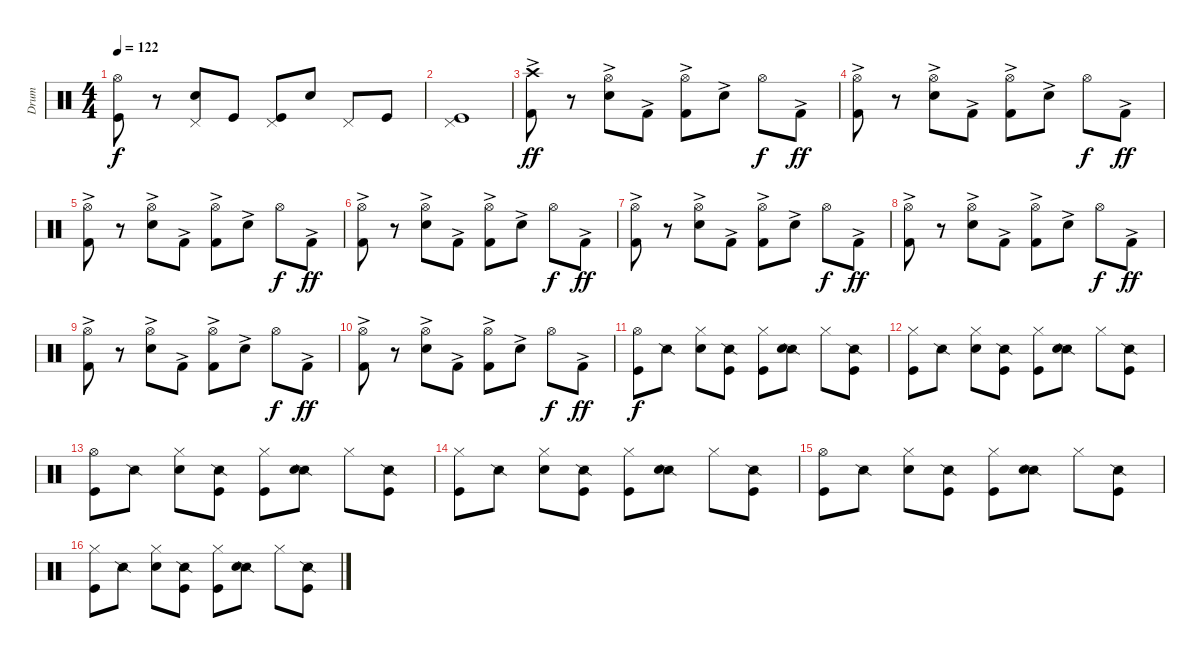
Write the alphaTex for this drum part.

\track ("Drum" "Drum") {instrument percussion}
\staff {score}
\articulation defaults
\ts (4 4)
\tempo 122
\clef neutral
\ks c
("Hi-Hat (open)" "Kick (hit)").8{dy f} r.8 ("Pedal Hi-Hat (hit)" "Electric Snare (hit)").8 "Kick (hit)".8 ("Pedal Hi-Hat (hit)" "Kick (hit)").8 "Electric Snare (hit)".8 "Pedal Hi-Hat (hit)".8 "Kick (hit)".8 |
("Pedal Hi-Hat (hit)" "Kick (hit)").1 |
("Crash high (hit)" "Kick (hit) 2"{ac}).8{dy ff volume 16} r.8 ("Hi-Hat (open)" "Electric Snare (hit)"{ac}).8 "Kick (hit) 2"{ac}.8 ("Hi-Hat (open)" "Kick (hit) 2"{ac}).8 "Electric Snare (hit)"{ac}.8 "Hi-Hat (open)".8{dy f} "Kick (hit) 2"{ac}.8{dy ff} |
("Hi-Hat (open)" "Kick (hit) 2"{ac}).8 r.8 ("Hi-Hat (open)" "Electric Snare (hit)"{ac}).8 "Kick (hit) 2"{ac}.8 ("Hi-Hat (open)" "Kick (hit) 2"{ac}).8 "Electric Snare (hit)"{ac}.8 "Hi-Hat (open)".8{dy f} "Kick (hit) 2"{ac}.8{dy ff} |
("Hi-Hat (open)" "Kick (hit) 2"{ac}).8 r.8 ("Hi-Hat (open)" "Electric Snare (hit)"{ac}).8 "Kick (hit) 2"{ac}.8 ("Hi-Hat (open)" "Kick (hit) 2"{ac}).8 "Electric Snare (hit)"{ac}.8 "Hi-Hat (open)".8{dy f} "Kick (hit) 2"{ac}.8{dy ff} |
("Hi-Hat (open)" "Kick (hit) 2"{ac}).8 r.8 ("Hi-Hat (open)" "Electric Snare (hit)"{ac}).8 "Kick (hit) 2"{ac}.8 ("Hi-Hat (open)" "Kick (hit) 2"{ac}).8 "Electric Snare (hit)"{ac}.8 "Hi-Hat (open)".8{dy f} "Kick (hit) 2"{ac}.8{dy ff} |
("Hi-Hat (open)" "Kick (hit) 2"{ac}).8 r.8 ("Hi-Hat (open)" "Electric Snare (hit)"{ac}).8 "Kick (hit) 2"{ac}.8 ("Hi-Hat (open)" "Kick (hit) 2"{ac}).8 "Electric Snare (hit)"{ac}.8 "Hi-Hat (open)".8{dy f} "Kick (hit) 2"{ac}.8{dy ff} |
("Hi-Hat (open)" "Kick (hit) 2"{ac}).8 r.8 ("Hi-Hat (open)" "Electric Snare (hit)"{ac}).8 "Kick (hit) 2"{ac}.8 ("Hi-Hat (open)" "Kick (hit) 2"{ac}).8 "Electric Snare (hit)"{ac}.8 "Hi-Hat (open)".8{dy f} "Kick (hit) 2"{ac}.8{dy ff} |
("Hi-Hat (open)" "Kick (hit) 2"{ac}).8 r.8 ("Hi-Hat (open)" "Electric Snare (hit)"{ac}).8 "Kick (hit) 2"{ac}.8 ("Hi-Hat (open)" "Kick (hit) 2"{ac}).8 "Electric Snare (hit)"{ac}.8 "Hi-Hat (open)".8{dy f} "Kick (hit) 2"{ac}.8{dy ff} |
("Hi-Hat (open)" "Kick (hit) 2"{ac}).8 r.8 ("Hi-Hat (open)" "Electric Snare (hit)"{ac}).8 "Kick (hit) 2"{ac}.8 ("Hi-Hat (open)" "Kick (hit) 2"{ac}).8 "Electric Snare (hit)"{ac}.8 "Hi-Hat (open)".8{dy f} "Kick (hit) 2"{ac}.8{dy ff} |
("Hi-Hat (open)" "Kick (hit)").8{dy f} "Snare (side stick) 2".8 ("Hi-Hat (closed)" "Electric Snare (hit)").8 ("Snare (side stick) 2" "Kick (hit)").8 ("Hi-Hat (closed)" "Kick (hit)").8 ("Snare (side stick) 2" "Electric Snare (hit)").8 "Hi-Hat (closed)".8 ("Snare (side stick) 2" "Kick (hit)").8 |
("Hi-Hat (closed)" "Kick (hit)").8 "Snare (side stick) 2".8 ("Hi-Hat (closed)" "Electric Snare (hit)").8 ("Snare (side stick) 2" "Kick (hit)").8 ("Hi-Hat (closed)" "Kick (hit)").8 ("Snare (side stick) 2" "Electric Snare (hit)").8 "Hi-Hat (closed)".8 ("Snare (side stick) 2" "Kick (hit)").8 |
("Hi-Hat (open)" "Kick (hit)").8 "Snare (side stick) 2".8 ("Hi-Hat (closed)" "Electric Snare (hit)").8 ("Snare (side stick) 2" "Kick (hit)").8 ("Hi-Hat (closed)" "Kick (hit)").8 ("Snare (side stick) 2" "Electric Snare (hit)").8 "Hi-Hat (closed)".8 ("Snare (side stick) 2" "Kick (hit)").8 |
("Hi-Hat (closed)" "Kick (hit)").8 "Snare (side stick) 2".8 ("Hi-Hat (closed)" "Electric Snare (hit)").8 ("Snare (side stick) 2" "Kick (hit)").8 ("Hi-Hat (closed)" "Kick (hit)").8 ("Snare (side stick) 2" "Electric Snare (hit)").8 "Hi-Hat (closed)".8 ("Snare (side stick) 2" "Kick (hit)").8 |
("Hi-Hat (open)" "Kick (hit)").8 "Snare (side stick) 2".8 ("Hi-Hat (closed)" "Electric Snare (hit)").8 ("Snare (side stick) 2" "Kick (hit)").8 ("Hi-Hat (closed)" "Kick (hit)").8 ("Snare (side stick) 2" "Electric Snare (hit)").8 "Hi-Hat (closed)".8 ("Snare (side stick) 2" "Kick (hit)").8 |
("Hi-Hat (closed)" "Kick (hit)").8 "Snare (side stick) 2".8 ("Hi-Hat (closed)" "Electric Snare (hit)").8 ("Snare (side stick) 2" "Kick (hit)").8 ("Hi-Hat (closed)" "Kick (hit)").8 ("Snare (side stick) 2" "Electric Snare (hit)").8 "Hi-Hat (closed)".8 ("Snare (side stick) 2" "Kick (hit)").8
